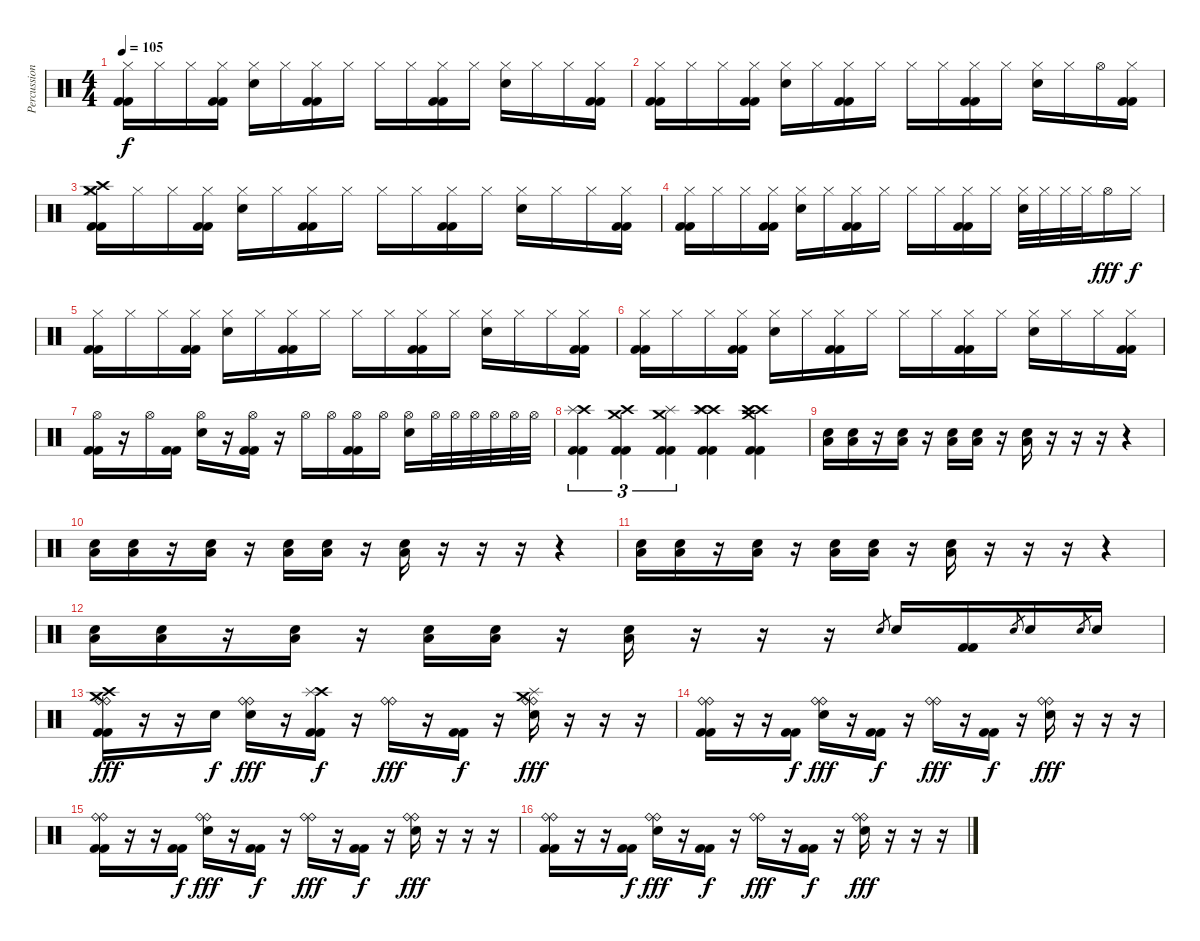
\track ("Percussion" "Percussion") {instrument percussion}
\staff {score}
\articulation defaults
\ts (4 4)
\tempo 105
\clef neutral
\ks c
("Hi-Hat (closed)" "Kick (hit) 2" "Kick (hit) 2").16{dy f} "Hi-Hat (closed)".16 "Hi-Hat (closed)".16 ("Hi-Hat (closed)" "Kick (hit) 2" "Kick (hit) 2").16 ("Hi-Hat (closed)" "Electric Snare (hit)").16 "Hi-Hat (closed)".16 ("Hi-Hat (closed)" "Kick (hit) 2" "Kick (hit) 2").16 "Hi-Hat (closed)".16 "Hi-Hat (closed)".16 "Hi-Hat (closed)".16 ("Hi-Hat (closed)" "Kick (hit) 2" "Kick (hit) 2").16 "Hi-Hat (closed)".16 ("Hi-Hat (closed)" "Electric Snare (hit)").16 "Hi-Hat (closed)".16 "Hi-Hat (closed)".16 ("Hi-Hat (closed)" "Kick (hit) 2" "Kick (hit) 2").16 |
("Hi-Hat (closed)" "Kick (hit) 2" "Kick (hit) 2").16 "Hi-Hat (closed)".16 "Hi-Hat (closed)".16 ("Hi-Hat (closed)" "Kick (hit) 2" "Kick (hit) 2").16 ("Hi-Hat (closed)" "Electric Snare (hit)").16 "Hi-Hat (closed)".16 ("Hi-Hat (closed)" "Kick (hit) 2" "Kick (hit) 2").16 "Hi-Hat (closed)".16 "Hi-Hat (closed)".16 "Hi-Hat (closed)".16 ("Hi-Hat (closed)" "Kick (hit) 2" "Kick (hit) 2").16 "Hi-Hat (closed)".16 ("Hi-Hat (closed)" "Electric Snare (hit)").16 "Hi-Hat (closed)".16 "Hi-Hat (open)".16 ("Hi-Hat (closed)" "Kick (hit) 2" "Kick (hit) 2").16 |
("Hi-Hat (closed)" "Crash high (hit)" "Crash medium (hit)" "Kick (hit) 2" "Kick (hit) 2").16 "Hi-Hat (closed)".16 "Hi-Hat (closed)".16 ("Hi-Hat (closed)" "Kick (hit) 2" "Kick (hit) 2").16 ("Hi-Hat (closed)" "Electric Snare (hit)").16 "Hi-Hat (closed)".16 ("Hi-Hat (closed)" "Kick (hit) 2" "Kick (hit) 2").16 "Hi-Hat (closed)".16 "Hi-Hat (closed)".16 "Hi-Hat (closed)".16 ("Hi-Hat (closed)" "Kick (hit) 2" "Kick (hit) 2").16 "Hi-Hat (closed)".16 ("Hi-Hat (closed)" "Electric Snare (hit)").16 "Hi-Hat (closed)".16 "Hi-Hat (closed)".16 ("Hi-Hat (closed)" "Kick (hit) 2" "Kick (hit) 2").16 |
("Hi-Hat (closed)" "Kick (hit) 2" "Kick (hit) 2").16 "Hi-Hat (closed)".16 "Hi-Hat (closed)".16 ("Hi-Hat (closed)" "Kick (hit) 2" "Kick (hit) 2").16 ("Hi-Hat (closed)" "Electric Snare (hit)").16 "Hi-Hat (closed)".16 ("Hi-Hat (closed)" "Kick (hit) 2" "Kick (hit) 2").16 "Hi-Hat (closed)".16 "Hi-Hat (closed)".16 "Hi-Hat (closed)".16 ("Hi-Hat (closed)" "Kick (hit) 2" "Kick (hit) 2").16 "Hi-Hat (closed)".16 ("Hi-Hat (closed)" "Electric Snare (hit)").32 "Hi-Hat (closed)".32 "Hi-Hat (closed)".32 "Hi-Hat (closed)".32 "Hi-Hat (open)".16{dy fff} "Hi-Hat (closed)".16{dy f} |
("Hi-Hat (closed)" "Kick (hit) 2" "Kick (hit) 2").16 "Hi-Hat (closed)".16 "Hi-Hat (closed)".16 ("Hi-Hat (closed)" "Kick (hit) 2" "Kick (hit) 2").16 ("Hi-Hat (closed)" "Electric Snare (hit)").16 "Hi-Hat (closed)".16 ("Hi-Hat (closed)" "Kick (hit) 2" "Kick (hit) 2").16 "Hi-Hat (closed)".16 "Hi-Hat (closed)".16 "Hi-Hat (closed)".16 ("Hi-Hat (closed)" "Kick (hit) 2" "Kick (hit) 2").16 "Hi-Hat (closed)".16 ("Hi-Hat (closed)" "Electric Snare (hit)").16 "Hi-Hat (closed)".16 "Hi-Hat (closed)".16 ("Hi-Hat (closed)" "Kick (hit) 2" "Kick (hit) 2").16 |
("Hi-Hat (closed)" "Kick (hit) 2" "Kick (hit) 2").16 "Hi-Hat (closed)".16 "Hi-Hat (closed)".16 ("Hi-Hat (closed)" "Kick (hit) 2" "Kick (hit) 2").16 ("Hi-Hat (closed)" "Electric Snare (hit)").16 "Hi-Hat (closed)".16 ("Hi-Hat (closed)" "Kick (hit) 2" "Kick (hit) 2").16 "Hi-Hat (closed)".16 "Hi-Hat (closed)".16 "Hi-Hat (closed)".16 ("Hi-Hat (closed)" "Kick (hit) 2" "Kick (hit) 2").16 "Hi-Hat (closed)".16 ("Hi-Hat (closed)" "Electric Snare (hit)").16 "Hi-Hat (closed)".16 "Hi-Hat (closed)".16 ("Hi-Hat (closed)" "Kick (hit) 2" "Kick (hit) 2").16 |
("Hi-Hat (open)" "Kick (hit) 2" "Kick (hit) 2").16 r.16 "Hi-Hat (open)".16 ("Kick (hit) 2" "Kick (hit) 2").16 ("Hi-Hat (open)" "Electric Snare (hit)").16 r.16 ("Hi-Hat (open)" "Kick (hit) 2" "Kick (hit) 2").16 r.16 "Hi-Hat (open)".16 "Hi-Hat (open)".16 ("Hi-Hat (open)" "Kick (hit) 2" "Kick (hit) 2").16 "Hi-Hat (open)".16 ("Hi-Hat (open)" "Electric Snare (hit)").16 "Hi-Hat (open)".32 "Hi-Hat (open)".32 "Hi-Hat (open)".32 "Hi-Hat (open)".32 "Hi-Hat (open)".32 "Hi-Hat (open)".32 |
("Crash high (hit)" "Splash (hit)" "Kick (hit) 2" "Kick (hit) 2").4{tu (3 2)} ("Crash medium (hit)" "Crash high (hit)" "Kick (hit) 2" "Kick (hit) 2").4{tu (3 2)} ("Splash (hit)" "Crash medium (hit)" "Kick (hit) 2" "Kick (hit) 2").4{tu (3 2)} ("Crash high (hit)" "Crash high (hit)" "Splash (hit)" "Kick (hit) 2" "Kick (hit) 2").4 ("Crash high (hit)" "Crash high (hit)" "Crash medium (hit)" "Kick (hit) 2" "Kick (hit) 2").4 |
("Low Tom (hit)" "Electric Snare (hit)").16 ("Low Tom (hit)" "Electric Snare (hit)").16 r.16 ("Low Tom (hit)" "Electric Snare (hit)").16 r.16 ("Low Tom (hit)" "Electric Snare (hit)").16 ("Low Tom (hit)" "Electric Snare (hit)").16 r.16 ("Low Tom (hit)" "Electric Snare (hit)").16 r.16 r.16 r.16 r.4 |
("Low Tom (hit)" "Electric Snare (hit)").16 ("Low Tom (hit)" "Electric Snare (hit)").16 r.16 ("Low Tom (hit)" "Electric Snare (hit)").16 r.16 ("Low Tom (hit)" "Electric Snare (hit)").16 ("Low Tom (hit)" "Electric Snare (hit)").16 r.16 ("Low Tom (hit)" "Electric Snare (hit)").16 r.16 r.16 r.16 r.4 |
("Low Tom (hit)" "Electric Snare (hit)").16 ("Low Tom (hit)" "Electric Snare (hit)").16 r.16 ("Low Tom (hit)" "Electric Snare (hit)").16 r.16 ("Low Tom (hit)" "Electric Snare (hit)").16 ("Low Tom (hit)" "Electric Snare (hit)").16 r.16 ("Low Tom (hit)" "Electric Snare (hit)").16 r.16 r.16 r.16 r.4 |
("Low Tom (hit)" "Electric Snare (hit)").16 ("Low Tom (hit)" "Electric Snare (hit)").16 r.16 ("Low Tom (hit)" "Electric Snare (hit)").16 r.16 ("Low Tom (hit)" "Electric Snare (hit)").16 ("Low Tom (hit)" "Electric Snare (hit)").16 r.16 ("Low Tom (hit)" "Electric Snare (hit)").16 r.16 r.16 r.16 "Electric Snare (hit)".8{gr} "Electric Snare (hit)".16 ("Kick (hit) 2" "Kick (hit) 2").16 "Electric Snare (hit)".8{gr} "Electric Snare (hit)".16 "Electric Snare (hit)".8{gr} "Electric Snare (hit)".16 |
("Ride (bell)" "Ride (bell)" "Crash high (hit)" "Crash medium (hit)" "Kick (hit) 2" "Kick (hit) 2").16{dy fff} r.16 r.16 "Electric Snare (hit)".16{dy f} ("Ride (bell)" "Ride (bell)" "Electric Snare (hit)").16{dy fff} r.16 ("Crash high (hit)" "Splash (hit)" "Kick (hit) 2" "Kick (hit) 2").16{dy f} r.16 ("Ride (bell)" "Ride (bell)").16{dy fff} r.16 ("Kick (hit) 2" "Kick (hit) 2").16{dy f} r.16 ("Ride (bell)" "Ride (bell)" "Crash medium (hit)" "Splash (hit)" "Electric Snare (hit)").16{dy fff} r.16 r.16 r.16 |
("Ride (bell)" "Ride (bell)" "Kick (hit) 2" "Kick (hit) 2").16 r.16 r.16 ("Kick (hit) 2" "Kick (hit) 2").16{dy f} ("Ride (bell)" "Ride (bell)" "Electric Snare (hit)").16{dy fff} r.16 ("Kick (hit) 2" "Kick (hit) 2").16{dy f} r.16 ("Ride (bell)" "Ride (bell)").16{dy fff} r.16 ("Kick (hit) 2" "Kick (hit) 2").16{dy f} r.16 ("Ride (bell)" "Ride (bell)" "Electric Snare (hit)").16{dy fff} r.16 r.16 r.16 |
("Ride (bell)" "Ride (bell)" "Kick (hit) 2" "Kick (hit) 2").16 r.16 r.16 ("Kick (hit) 2" "Kick (hit) 2").16{dy f} ("Ride (bell)" "Ride (bell)" "Electric Snare (hit)").16{dy fff} r.16 ("Kick (hit) 2" "Kick (hit) 2").16{dy f} r.16 ("Ride (bell)" "Ride (bell)").16{dy fff} r.16 ("Kick (hit) 2" "Kick (hit) 2").16{dy f} r.16 ("Ride (bell)" "Ride (bell)" "Electric Snare (hit)").16{dy fff} r.16 r.16 r.16 |
("Ride (bell)" "Ride (bell)" "Kick (hit) 2" "Kick (hit) 2").16 r.16 r.16 ("Kick (hit) 2" "Kick (hit) 2").16{dy f} ("Ride (bell)" "Ride (bell)" "Electric Snare (hit)").16{dy fff} r.16 ("Kick (hit) 2" "Kick (hit) 2").16{dy f} r.16 ("Ride (bell)" "Ride (bell)").16{dy fff} r.16 ("Kick (hit) 2" "Kick (hit) 2").16{dy f} r.16 ("Ride (bell)" "Ride (bell)" "Electric Snare (hit)").16{dy fff} r.16 r.16 r.16
